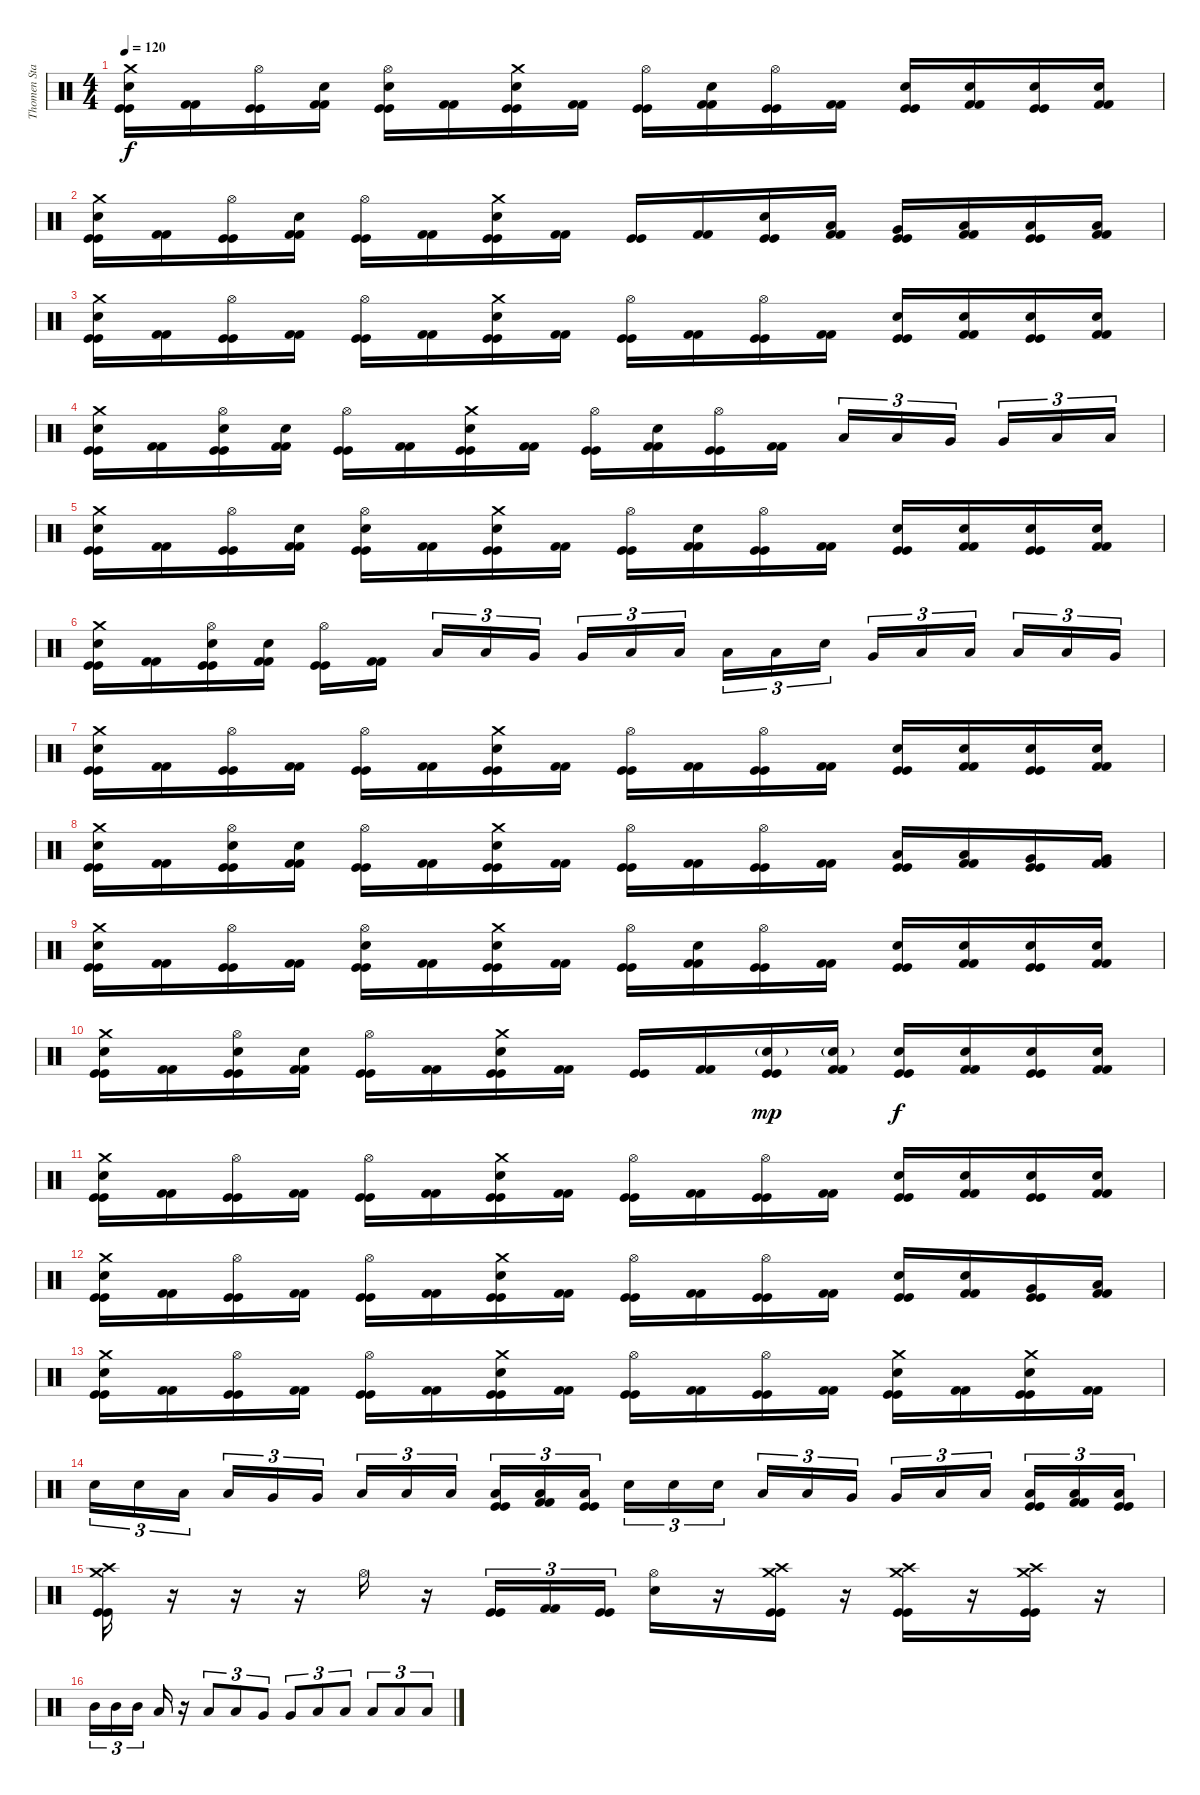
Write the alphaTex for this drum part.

\track ("Thomen Stauch" "Thomen Sta") {instrument percussion}
\staff {score}
\articulation defaults
\ts (4 4)
\tempo 120
\clef neutral
\ks c
("Crash medium (hit)" "Snare (hit) 2" "Kick (hit)" "Kick (hit)").16{dy f} ("Kick (hit) 2" "Kick (hit) 2").16 ("Hi-Hat (open)" "Kick (hit)" "Kick (hit)").16 ("Snare (hit) 2" "Kick (hit) 2" "Kick (hit) 2").16 ("Hi-Hat (open)" "Snare (hit) 2" "Kick (hit)" "Kick (hit)").16 ("Kick (hit) 2" "Kick (hit) 2").16 ("Crash medium (hit)" "Snare (hit) 2" "Kick (hit)" "Kick (hit)").16 ("Kick (hit) 2" "Kick (hit) 2").16 ("Hi-Hat (open)" "Kick (hit)" "Kick (hit)").16 ("Snare (hit) 2" "Kick (hit) 2" "Kick (hit) 2").16 ("Hi-Hat (open)" "Kick (hit)" "Kick (hit)").16 ("Kick (hit) 2" "Kick (hit) 2").16 ("Snare (hit) 2" "Kick (hit)" "Kick (hit)").16 ("Snare (hit) 2" "Kick (hit) 2" "Kick (hit) 2").16 ("Snare (hit) 2" "Kick (hit)" "Kick (hit)").16 ("Snare (hit) 2" "Kick (hit) 2" "Kick (hit) 2").16 |
("Crash medium (hit)" "Snare (hit) 2" "Kick (hit)" "Kick (hit)").16 ("Kick (hit) 2" "Kick (hit) 2").16 ("Hi-Hat (open)" "Kick (hit)" "Kick (hit)").16 ("Snare (hit) 2" "Kick (hit) 2" "Kick (hit) 2").16 ("Hi-Hat (open)" "Kick (hit)" "Kick (hit)").16 ("Kick (hit) 2" "Kick (hit) 2").16 ("Crash medium (hit)" "Snare (hit) 2" "Kick (hit)" "Kick (hit)").16 ("Kick (hit) 2" "Kick (hit) 2").16 ("Kick (hit)" "Kick (hit)").16 ("Kick (hit) 2" "Kick (hit) 2").16 ("Snare (hit) 2" "Kick (hit)" "Kick (hit)").16 ("Low Tom (hit)" "Kick (hit) 2" "Kick (hit) 2").16 ("Very Low Tom (hit)" "Kick (hit)" "Kick (hit)").16 ("Low Floor Tom (hit)" "Kick (hit) 2" "Kick (hit) 2").16 ("Low Floor Tom (hit)" "Kick (hit)" "Kick (hit)").16 ("Low Floor Tom (hit)" "Kick (hit) 2" "Kick (hit) 2").16 |
("Crash medium (hit)" "Snare (hit) 2" "Kick (hit)" "Kick (hit)").16 ("Kick (hit) 2" "Kick (hit) 2").16 ("Hi-Hat (open)" "Kick (hit)" "Kick (hit)").16 ("Kick (hit) 2" "Kick (hit) 2").16 ("Hi-Hat (open)" "Kick (hit)" "Kick (hit)").16 ("Kick (hit) 2" "Kick (hit) 2").16 ("Crash medium (hit)" "Snare (hit) 2" "Kick (hit)" "Kick (hit)").16 ("Kick (hit) 2" "Kick (hit) 2").16 ("Hi-Hat (open)" "Kick (hit)" "Kick (hit)").16 ("Kick (hit) 2" "Kick (hit) 2").16 ("Hi-Hat (open)" "Kick (hit)" "Kick (hit)").16 ("Kick (hit) 2" "Kick (hit) 2").16 ("Snare (hit) 2" "Kick (hit)" "Kick (hit)").16 ("Snare (hit) 2" "Kick (hit) 2" "Kick (hit) 2").16 ("Snare (hit) 2" "Kick (hit)" "Kick (hit)").16 ("Snare (hit) 2" "Kick (hit) 2" "Kick (hit) 2").16 |
("Crash medium (hit)" "Snare (hit) 2" "Kick (hit)" "Kick (hit)").16 ("Kick (hit) 2" "Kick (hit) 2").16 ("Hi-Hat (open)" "Snare (hit) 2" "Kick (hit)" "Kick (hit)").16 ("Snare (hit) 2" "Kick (hit) 2" "Kick (hit) 2").16 ("Hi-Hat (open)" "Kick (hit)" "Kick (hit)").16 ("Kick (hit) 2" "Kick (hit) 2").16 ("Crash medium (hit)" "Snare (hit) 2" "Kick (hit)" "Kick (hit)").16 ("Kick (hit) 2" "Kick (hit) 2").16 ("Hi-Hat (open)" "Kick (hit)" "Kick (hit)").16 ("Snare (hit) 2" "Kick (hit) 2" "Kick (hit) 2").16 ("Hi-Hat (open)" "Kick (hit)" "Kick (hit)").16 ("Kick (hit) 2" "Kick (hit) 2").16 "Low Tom (hit)".16{tu (3 2)} "Low Tom (hit)".16{tu (3 2)} "Very Low Tom (hit)".16{tu (3 2)} "Very Low Tom (hit)".16{tu (3 2)} "Low Floor Tom (hit)".16{tu (3 2)} "Low Floor Tom (hit)".16{tu (3 2)} |
("Crash medium (hit)" "Snare (hit) 2" "Kick (hit)" "Kick (hit)").16 ("Kick (hit) 2" "Kick (hit) 2").16 ("Hi-Hat (open)" "Kick (hit)" "Kick (hit)").16 ("Snare (hit) 2" "Kick (hit) 2" "Kick (hit) 2").16 ("Hi-Hat (open)" "Snare (hit) 2" "Kick (hit)" "Kick (hit)").16 ("Kick (hit) 2" "Kick (hit) 2").16 ("Crash medium (hit)" "Snare (hit) 2" "Kick (hit)" "Kick (hit)").16 ("Kick (hit) 2" "Kick (hit) 2").16 ("Hi-Hat (open)" "Kick (hit)" "Kick (hit)").16 ("Snare (hit) 2" "Kick (hit) 2" "Kick (hit) 2").16 ("Hi-Hat (open)" "Kick (hit)" "Kick (hit)").16 ("Kick (hit) 2" "Kick (hit) 2").16 ("Snare (hit) 2" "Kick (hit)" "Kick (hit)").16 ("Snare (hit) 2" "Kick (hit) 2" "Kick (hit) 2").16 ("Snare (hit) 2" "Kick (hit)" "Kick (hit)").16 ("Snare (hit) 2" "Kick (hit) 2" "Kick (hit) 2").16 |
("Crash medium (hit)" "Snare (hit) 2" "Kick (hit)" "Kick (hit)").16 ("Kick (hit) 2" "Kick (hit) 2").16 ("Hi-Hat (open)" "Snare (hit) 2" "Kick (hit)" "Kick (hit)").16 ("Snare (hit) 2" "Kick (hit) 2" "Kick (hit) 2").16 ("Hi-Hat (open)" "Kick (hit)" "Kick (hit)").16 ("Kick (hit) 2" "Kick (hit) 2").16 "Low Tom (hit)".16{tu (3 2)} "Low Tom (hit)".16{tu (3 2)} "Very Low Tom (hit)".16{tu (3 2)} "Very Low Tom (hit)".16{tu (3 2)} "Low Floor Tom (hit)".16{tu (3 2)} "Low Floor Tom (hit)".16{tu (3 2)} "Low Tom (hit)".16{tu (3 2)} "Low Tom (hit)".16{tu (3 2)} "Snare (hit) 2".16{tu (3 2)} "Very Low Tom (hit)".16{tu (3 2)} "Low Floor Tom (hit)".16{tu (3 2)} "Low Floor Tom (hit)".16{tu (3 2)} "Low Tom (hit)".16{tu (3 2)} "Low Tom (hit)".16{tu (3 2)} "Very Low Tom (hit)".16{tu (3 2)} |
("Crash medium (hit)" "Snare (hit) 2" "Kick (hit)" "Kick (hit)").16 ("Kick (hit) 2" "Kick (hit) 2").16 ("Hi-Hat (open)" "Kick (hit)" "Kick (hit)").16 ("Kick (hit) 2" "Kick (hit) 2").16 ("Hi-Hat (open)" "Kick (hit)" "Kick (hit)").16 ("Kick (hit) 2" "Kick (hit) 2").16 ("Crash medium (hit)" "Snare (hit) 2" "Kick (hit)" "Kick (hit)").16 ("Kick (hit) 2" "Kick (hit) 2").16 ("Hi-Hat (open)" "Kick (hit)" "Kick (hit)").16 ("Kick (hit) 2" "Kick (hit) 2").16 ("Hi-Hat (open)" "Kick (hit)" "Kick (hit)").16 ("Kick (hit) 2" "Kick (hit) 2").16 ("Snare (hit) 2" "Kick (hit)" "Kick (hit)").16 ("Snare (hit) 2" "Kick (hit) 2" "Kick (hit) 2").16 ("Snare (hit) 2" "Kick (hit)" "Kick (hit)").16 ("Snare (hit) 2" "Kick (hit) 2" "Kick (hit) 2").16 |
("Crash medium (hit)" "Snare (hit) 2" "Kick (hit)" "Kick (hit)").16 ("Kick (hit) 2" "Kick (hit) 2").16 ("Hi-Hat (open)" "Snare (hit) 2" "Kick (hit)" "Kick (hit)").16 ("Snare (hit) 2" "Kick (hit) 2" "Kick (hit) 2").16 ("Hi-Hat (open)" "Kick (hit)" "Kick (hit)").16 ("Kick (hit) 2" "Kick (hit) 2").16 ("Crash medium (hit)" "Snare (hit) 2" "Kick (hit)" "Kick (hit)").16 ("Kick (hit) 2" "Kick (hit) 2").16 ("Hi-Hat (open)" "Kick (hit)" "Kick (hit)").16 ("Kick (hit) 2" "Kick (hit) 2").16 ("Hi-Hat (open)" "Kick (hit)" "Kick (hit)").16 ("Kick (hit) 2" "Kick (hit) 2").16 ("Low Tom (hit)" "Kick (hit)" "Kick (hit)").16 ("Low Tom (hit)" "Kick (hit) 2" "Kick (hit) 2").16 ("Very Low Tom (hit)" "Kick (hit)" "Kick (hit)").16 ("Very Low Tom (hit)" "Kick (hit) 2" "Kick (hit) 2").16 |
("Crash medium (hit)" "Snare (hit) 2" "Kick (hit)" "Kick (hit)").16 ("Kick (hit) 2" "Kick (hit) 2").16 ("Hi-Hat (open)" "Kick (hit)" "Kick (hit)").16 ("Kick (hit) 2" "Kick (hit) 2").16 ("Hi-Hat (open)" "Snare (hit) 2" "Kick (hit)" "Kick (hit)").16 ("Kick (hit) 2" "Kick (hit) 2").16 ("Crash medium (hit)" "Snare (hit) 2" "Kick (hit)" "Kick (hit)").16 ("Kick (hit) 2" "Kick (hit) 2").16 ("Hi-Hat (open)" "Kick (hit)" "Kick (hit)").16 ("Snare (hit) 2" "Kick (hit) 2" "Kick (hit) 2").16 ("Hi-Hat (open)" "Kick (hit)" "Kick (hit)").16 ("Kick (hit) 2" "Kick (hit) 2").16 ("Snare (hit) 2" "Kick (hit)" "Kick (hit)").16 ("Snare (hit) 2" "Kick (hit) 2" "Kick (hit) 2").16 ("Snare (hit) 2" "Kick (hit)" "Kick (hit)").16 ("Snare (hit) 2" "Kick (hit) 2" "Kick (hit) 2").16 |
("Crash medium (hit)" "Snare (hit) 2" "Kick (hit)" "Kick (hit)").16 ("Kick (hit) 2" "Kick (hit) 2").16 ("Hi-Hat (open)" "Snare (hit) 2" "Kick (hit)" "Kick (hit)").16 ("Snare (hit) 2" "Kick (hit) 2" "Kick (hit) 2").16 ("Hi-Hat (open)" "Kick (hit)" "Kick (hit)").16 ("Kick (hit) 2" "Kick (hit) 2").16 ("Crash medium (hit)" "Snare (hit) 2" "Kick (hit)" "Kick (hit)").16 ("Kick (hit) 2" "Kick (hit) 2").16 ("Kick (hit)" "Kick (hit)").16 ("Kick (hit) 2" "Kick (hit) 2").16 ("Snare (hit) 2"{g} "Kick (hit)" "Kick (hit)").16{dy mp} ("Snare (hit) 2"{g} "Kick (hit) 2" "Kick (hit) 2").16 ("Snare (hit) 2" "Kick (hit)" "Kick (hit)").16{dy f} ("Snare (hit) 2" "Kick (hit) 2" "Kick (hit) 2").16 ("Snare (hit) 2" "Kick (hit)" "Kick (hit)").16 ("Snare (hit) 2" "Kick (hit) 2" "Kick (hit) 2").16 |
("Crash medium (hit)" "Snare (hit) 2" "Kick (hit)" "Kick (hit)").16 ("Kick (hit) 2" "Kick (hit) 2").16 ("Hi-Hat (open)" "Kick (hit)" "Kick (hit)").16 ("Kick (hit) 2" "Kick (hit) 2").16 ("Hi-Hat (open)" "Kick (hit)" "Kick (hit)").16 ("Kick (hit) 2" "Kick (hit) 2").16 ("Crash medium (hit)" "Snare (hit) 2" "Kick (hit)" "Kick (hit)").16 ("Kick (hit) 2" "Kick (hit) 2").16 ("Hi-Hat (open)" "Kick (hit)" "Kick (hit)").16 ("Kick (hit) 2" "Kick (hit) 2").16 ("Hi-Hat (open)" "Kick (hit)" "Kick (hit)").16 ("Kick (hit) 2" "Kick (hit) 2").16 ("Snare (hit) 2" "Kick (hit)" "Kick (hit)").16 ("Snare (hit) 2" "Kick (hit) 2" "Kick (hit) 2").16 ("Snare (hit) 2" "Kick (hit)" "Kick (hit)").16 ("Snare (hit) 2" "Kick (hit) 2" "Kick (hit) 2").16 |
("Crash medium (hit)" "Snare (hit) 2" "Kick (hit)" "Kick (hit)").16 ("Kick (hit) 2" "Kick (hit) 2").16 ("Hi-Hat (open)" "Kick (hit)" "Kick (hit)").16 ("Kick (hit) 2" "Kick (hit) 2").16 ("Hi-Hat (open)" "Kick (hit)" "Kick (hit)").16 ("Kick (hit) 2" "Kick (hit) 2").16 ("Crash medium (hit)" "Snare (hit) 2" "Kick (hit)" "Kick (hit)").16 ("Kick (hit) 2" "Kick (hit) 2").16 ("Hi-Hat (open)" "Kick (hit)" "Kick (hit)").16 ("Kick (hit) 2" "Kick (hit) 2").16 ("Hi-Hat (open)" "Kick (hit)" "Kick (hit)").16 ("Kick (hit) 2" "Kick (hit) 2").16 ("Snare (hit) 2" "Kick (hit)" "Kick (hit)").16 ("Snare (hit) 2" "Kick (hit) 2" "Kick (hit) 2").16 ("Very Low Tom (hit)" "Kick (hit)" "Kick (hit)").16 ("Low Floor Tom (hit)" "Kick (hit) 2" "Kick (hit) 2").16 |
("Crash medium (hit)" "Snare (hit) 2" "Kick (hit)" "Kick (hit)").16 ("Kick (hit) 2" "Kick (hit) 2").16 ("Hi-Hat (open)" "Kick (hit)" "Kick (hit)").16 ("Kick (hit) 2" "Kick (hit) 2").16 ("Hi-Hat (open)" "Kick (hit)" "Kick (hit)").16 ("Kick (hit) 2" "Kick (hit) 2").16 ("Crash medium (hit)" "Snare (hit) 2" "Kick (hit)" "Kick (hit)").16 ("Kick (hit) 2" "Kick (hit) 2").16 ("Hi-Hat (open)" "Kick (hit)" "Kick (hit)").16 ("Kick (hit) 2" "Kick (hit) 2").16 ("Hi-Hat (open)" "Kick (hit)" "Kick (hit)").16 ("Kick (hit) 2" "Kick (hit) 2").16 ("Crash medium (hit)" "Snare (hit) 2" "Kick (hit)" "Kick (hit)").16 ("Kick (hit) 2" "Kick (hit) 2").16 ("Crash medium (hit)" "Snare (hit) 2" "Kick (hit)" "Kick (hit)").16 ("Kick (hit) 2" "Kick (hit) 2").16 |
"Snare (hit) 2".16{tu (3 2)} "Snare (hit) 2".16{tu (3 2)} "Low Tom (hit)".16{tu (3 2)} "Low Tom (hit)".16{tu (3 2)} "Very Low Tom (hit)".16{tu (3 2)} "Very Low Tom (hit)".16{tu (3 2)} "Low Floor Tom (hit)".16{tu (3 2)} "Low Floor Tom (hit)".16{tu (3 2)} "Low Floor Tom (hit)".16{tu (3 2)} ("Low Floor Tom (hit)" "Kick (hit)" "Kick (hit)").16{tu (3 2)} ("Low Floor Tom (hit)" "Kick (hit) 2" "Kick (hit) 2").16{tu (3 2)} ("Low Floor Tom (hit)" "Kick (hit)" "Kick (hit)").16{tu (3 2)} "Snare (hit) 2".16{tu (3 2)} "Snare (hit) 2".16{tu (3 2)} "Snare (hit) 2".16{tu (3 2)} "Low Tom (hit)".16{tu (3 2)} "Low Tom (hit)".16{tu (3 2)} "Very Low Tom (hit)".16{tu (3 2)} "Very Low Tom (hit)".16{tu (3 2)} "Low Floor Tom (hit)".16{tu (3 2)} "Low Floor Tom (hit)".16{tu (3 2)} ("Low Floor Tom (hit)" "Kick (hit)" "Kick (hit)").16{tu (3 2)} ("Low Floor Tom (hit)" "Kick (hit) 2" "Kick (hit) 2").16{tu (3 2)} ("Low Floor Tom (hit)" "Kick (hit)" "Kick (hit)").16{tu (3 2)} |
("Crash medium (hit)" "Crash high (hit)" "Kick (hit)" "Kick (hit)").16 r.16 r.16 r.16 "Hi-Hat (open)".16 r.16 ("Kick (hit)" "Kick (hit)").16{tu (3 2)} ("Kick (hit) 2" "Kick (hit) 2").16{tu (3 2)} ("Kick (hit)" "Kick (hit)").16{tu (3 2)} ("Hi-Hat (open)" "Snare (hit) 2").16 r.16 ("Crash medium (hit)" "Crash high (hit)" "Kick (hit)" "Kick (hit)").16 r.16 ("Crash medium (hit)" "Crash high (hit)" "Kick (hit)" "Kick (hit)").16 r.16 ("Crash medium (hit)" "Crash high (hit)" "Kick (hit)" "Kick (hit)").16 r.16 |
"Mid Tom (hit)".16{tu (3 2)} "Mid Tom (hit)".16{tu (3 2)} "Mid Tom (hit)".16{tu (3 2)} "Low Tom (hit)".16 r.16 "Low Tom (hit)".8{tu (3 2)} "Low Tom (hit)".8{tu (3 2)} "Very Low Tom (hit)".8{tu (3 2)} "Very Low Tom (hit)".8{tu (3 2)} "Low Floor Tom (hit)".8{tu (3 2)} "Low Floor Tom (hit)".8{tu (3 2)} "Low Floor Tom (hit)".8{tu (3 2)} "Low Floor Tom (hit)".8{tu (3 2)} "Low Floor Tom (hit)".8{tu (3 2)}
